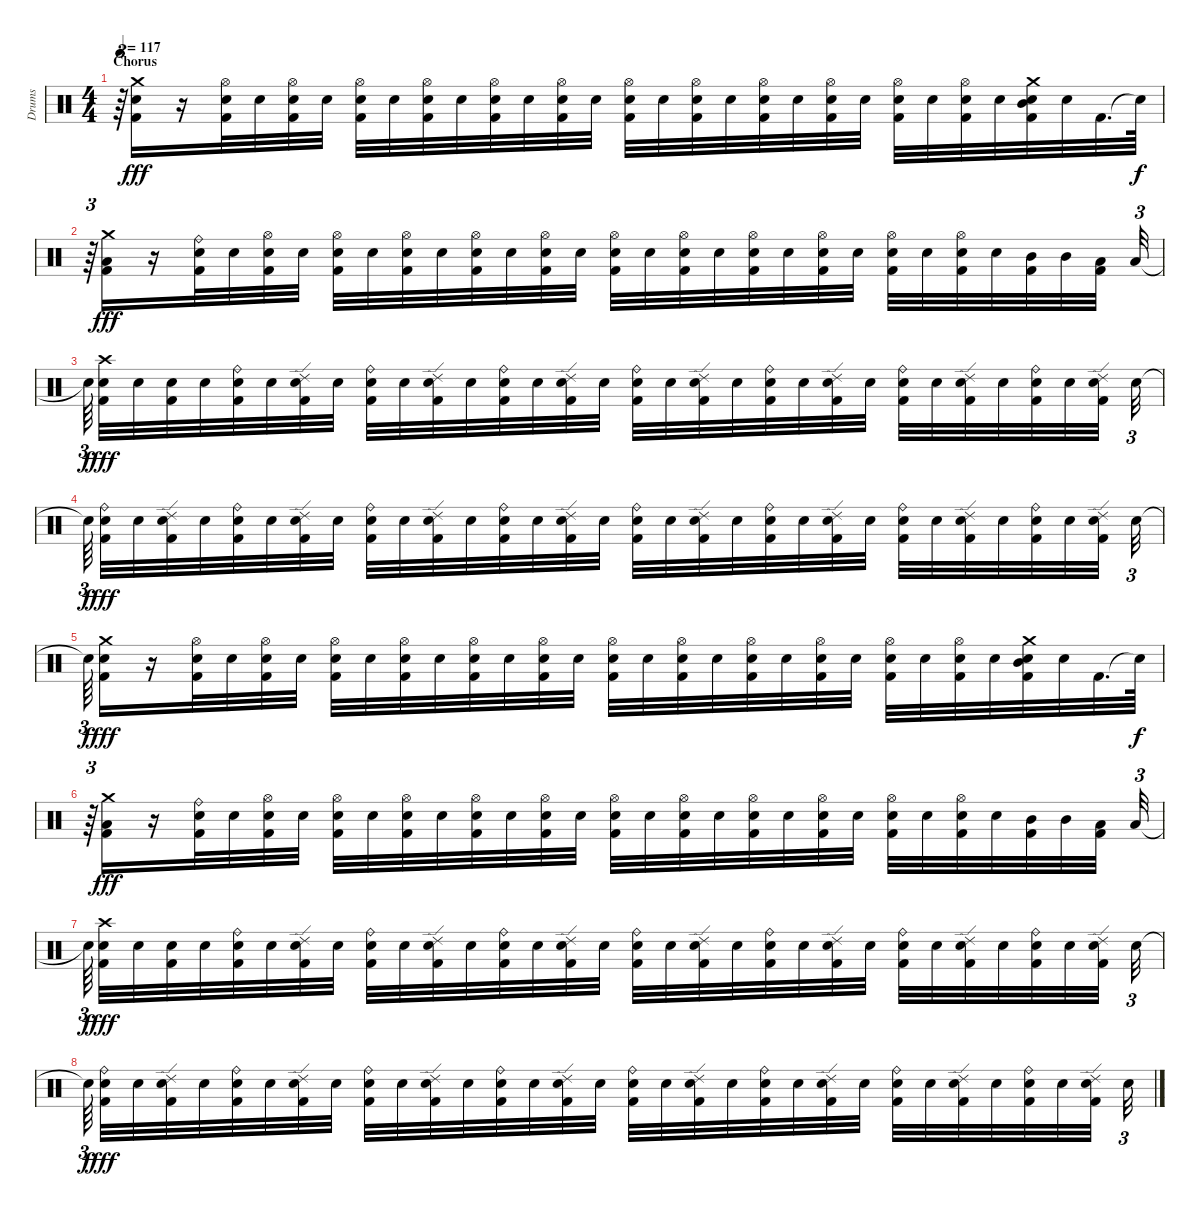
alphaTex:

\track ("Drums" "Drums") {instrument percussion}
\staff {score}
\articulation defaults
\ts (4 4)
\section ("" "Chorus")
\tempo 117
\clef neutral
\ks c
r.64{tu (3 2) dy fff} ("Kick (hit) 2" "Snare (hit) 2" "Crash medium (hit)").16 r.16 ("Kick (hit) 2" "Snare (hit) 2" "Hi-Hat (open)").32 "Snare (hit) 2".32 ("Kick (hit) 2" "Snare (hit) 2" "Hi-Hat (open)").32 "Snare (hit) 2".32 ("Kick (hit) 2" "Snare (hit) 2" "Hi-Hat (open)").32 "Snare (hit) 2".32 ("Kick (hit) 2" "Snare (hit) 2" "Hi-Hat (open)").32 "Snare (hit) 2".32 ("Kick (hit) 2" "Snare (hit) 2" "Hi-Hat (open)").32 "Snare (hit) 2".32 ("Kick (hit) 2" "Snare (hit) 2" "Hi-Hat (open)").32 "Snare (hit) 2".32 ("Kick (hit) 2" "Snare (hit) 2" "Hi-Hat (open)").32 "Snare (hit) 2".32 ("Kick (hit) 2" "Snare (hit) 2" "Hi-Hat (open)").32 "Snare (hit) 2".32 ("Kick (hit) 2" "Snare (hit) 2" "Hi-Hat (open)").32 "Snare (hit) 2".32 ("Kick (hit) 2" "Snare (hit) 2" "Hi-Hat (open)").32 "Snare (hit) 2".32 ("Kick (hit) 2" "Snare (hit) 2" "Hi-Hat (open)").32 "Snare (hit) 2".32 ("Kick (hit) 2" "Snare (hit) 2" "Hi-Hat (open)").32 "Snare (hit) 2".32 ("Kick (hit) 2" "Snare (hit) 2" "Mid Tom (hit)" "Crash medium (hit)").32 "Snare (hit) 2".32 "Kick (hit) 2".32{d} "Snare (hit)"{t}.64{dy f} |
r.64{tu (3 2)} ("Kick (hit) 2" "Low Tom (hit)" "Crash medium (hit)").16{dy fff} r.16 ("Kick (hit) 2" "Snare (hit) 2" "Ride (bell)").32 "Snare (hit) 2".32 ("Kick (hit) 2" "Snare (hit) 2" "Hi-Hat (open)").32 "Snare (hit) 2".32 ("Kick (hit) 2" "Snare (hit) 2" "Hi-Hat (open)").32 "Snare (hit) 2".32 ("Kick (hit) 2" "Snare (hit) 2" "Hi-Hat (open)").32 "Snare (hit) 2".32 ("Kick (hit) 2" "Snare (hit) 2" "Hi-Hat (open)").32 "Snare (hit) 2".32 ("Kick (hit) 2" "Snare (hit) 2" "Hi-Hat (open)").32 "Snare (hit) 2".32 ("Kick (hit) 2" "Snare (hit) 2" "Hi-Hat (open)").32 "Snare (hit) 2".32 ("Kick (hit) 2" "Snare (hit) 2" "Hi-Hat (open)").32 "Snare (hit) 2".32 ("Kick (hit) 2" "Snare (hit) 2" "Hi-Hat (open)").32 "Snare (hit) 2".32 ("Kick (hit) 2" "Snare (hit) 2" "Hi-Hat (open)").32 "Snare (hit) 2".32 ("Kick (hit) 2" "Snare (hit) 2" "Hi-Hat (open)").32 "Snare (hit) 2".32 ("Kick (hit) 2" "Snare (hit) 2" "Hi-Hat (open)").32 "Snare (hit) 2".32 ("Kick (hit) 2" "Mid Tom (hit)").32 "Mid Tom (hit)".32 ("Kick (hit) 2" "Low Tom (hit)").32{beam splitsecondary} "Low Tom (hit)".32{tu (3 2)} |
"Snare (hit)"{t}.64{tu (3 2) dy f beam splitsecondary} ("Kick (hit) 2" "Snare (hit) 2" "Crash high (hit)").32{dy fff} "Snare (hit) 2".32 ("Kick (hit) 2" "Snare (hit) 2").32 "Snare (hit) 2".32 ("Kick (hit) 2" "Snare (hit) 2" "Ride (bell)").32 "Snare (hit) 2".32 ("Kick (hit) 2" "Snare (hit) 2" "Ride (edge) 2").32 "Snare (hit) 2".32 ("Kick (hit) 2" "Snare (hit) 2" "Ride (bell)").32 "Snare (hit) 2".32 ("Kick (hit) 2" "Snare (hit) 2" "Ride (edge) 2").32 "Snare (hit) 2".32 ("Kick (hit) 2" "Snare (hit) 2" "Ride (bell)").32 "Snare (hit) 2".32 ("Kick (hit) 2" "Snare (hit) 2" "Ride (edge) 2").32 "Snare (hit) 2".32 ("Kick (hit) 2" "Snare (hit) 2" "Ride (bell)").32 "Snare (hit) 2".32 ("Kick (hit) 2" "Snare (hit) 2" "Ride (edge) 2").32 "Snare (hit) 2".32 ("Kick (hit) 2" "Snare (hit) 2" "Ride (bell)").32 "Snare (hit) 2".32 ("Kick (hit) 2" "Snare (hit) 2" "Ride (edge) 2").32 "Snare (hit) 2".32 ("Kick (hit) 2" "Snare (hit) 2" "Ride (bell)").32 "Snare (hit) 2".32 ("Kick (hit) 2" "Snare (hit) 2" "Ride (edge) 2").32 "Snare (hit) 2".32 ("Kick (hit) 2" "Snare (hit) 2" "Ride (bell)").32 "Snare (hit) 2".32 ("Kick (hit) 2" "Snare (hit) 2" "Ride (edge) 2").32{beam splitsecondary} "Snare (hit) 2".32{tu (3 2)} |
"Snare (hit)"{t}.64{tu (3 2) dy f beam splitsecondary} ("Kick (hit) 2" "Snare (hit) 2" "Ride (bell)").32{dy fff} "Snare (hit) 2".32 ("Kick (hit) 2" "Snare (hit) 2" "Ride (edge) 2").32 "Snare (hit) 2".32 ("Kick (hit) 2" "Snare (hit) 2" "Ride (bell)").32 "Snare (hit) 2".32 ("Kick (hit) 2" "Snare (hit) 2" "Ride (edge) 2").32 "Snare (hit) 2".32 ("Kick (hit) 2" "Snare (hit) 2" "Ride (bell)").32 "Snare (hit) 2".32 ("Kick (hit) 2" "Snare (hit) 2" "Ride (edge) 2").32 "Snare (hit) 2".32 ("Kick (hit) 2" "Snare (hit) 2" "Ride (bell)").32 "Snare (hit) 2".32 ("Kick (hit) 2" "Snare (hit) 2" "Ride (edge) 2").32 "Snare (hit) 2".32 ("Kick (hit) 2" "Snare (hit) 2" "Ride (bell)").32 "Snare (hit) 2".32 ("Kick (hit) 2" "Snare (hit) 2" "Ride (edge) 2").32 "Snare (hit) 2".32 ("Kick (hit) 2" "Snare (hit) 2" "Ride (bell)").32 "Snare (hit) 2".32 ("Kick (hit) 2" "Snare (hit) 2" "Ride (edge) 2").32 "Snare (hit) 2".32 ("Kick (hit) 2" "Snare (hit) 2" "Ride (bell)").32 "Snare (hit) 2".32 ("Kick (hit) 2" "Snare (hit) 2" "Ride (edge) 2").32 "Snare (hit) 2".32 ("Kick (hit) 2" "Snare (hit) 2" "Ride (bell)").32 "Snare (hit) 2".32 ("Kick (hit) 2" "Snare (hit) 2" "Ride (edge) 2").32{beam splitsecondary} "Snare (hit) 2".32{tu (3 2)} |
"Snare (hit)"{t}.64{tu (3 2) dy f} ("Kick (hit) 2" "Snare (hit) 2" "Crash medium (hit)").16{dy fff} r.16 ("Kick (hit) 2" "Snare (hit) 2" "Hi-Hat (open)").32 "Snare (hit) 2".32 ("Kick (hit) 2" "Snare (hit) 2" "Hi-Hat (open)").32 "Snare (hit) 2".32 ("Kick (hit) 2" "Snare (hit) 2" "Hi-Hat (open)").32 "Snare (hit) 2".32 ("Kick (hit) 2" "Snare (hit) 2" "Hi-Hat (open)").32 "Snare (hit) 2".32 ("Kick (hit) 2" "Snare (hit) 2" "Hi-Hat (open)").32 "Snare (hit) 2".32 ("Kick (hit) 2" "Snare (hit) 2" "Hi-Hat (open)").32 "Snare (hit) 2".32 ("Kick (hit) 2" "Snare (hit) 2" "Hi-Hat (open)").32 "Snare (hit) 2".32 ("Kick (hit) 2" "Snare (hit) 2" "Hi-Hat (open)").32 "Snare (hit) 2".32 ("Kick (hit) 2" "Snare (hit) 2" "Hi-Hat (open)").32 "Snare (hit) 2".32 ("Kick (hit) 2" "Snare (hit) 2" "Hi-Hat (open)").32 "Snare (hit) 2".32 ("Kick (hit) 2" "Snare (hit) 2" "Hi-Hat (open)").32 "Snare (hit) 2".32 ("Kick (hit) 2" "Snare (hit) 2" "Hi-Hat (open)").32 "Snare (hit) 2".32 ("Kick (hit) 2" "Snare (hit) 2" "Mid Tom (hit)" "Crash medium (hit)").32 "Snare (hit) 2".32 "Kick (hit) 2".32{d} "Snare (hit)"{t}.64{dy f} |
r.64{tu (3 2)} ("Kick (hit) 2" "Low Tom (hit)" "Crash medium (hit)").16{dy fff} r.16 ("Kick (hit) 2" "Snare (hit) 2" "Ride (bell)").32 "Snare (hit) 2".32 ("Kick (hit) 2" "Snare (hit) 2" "Hi-Hat (open)").32 "Snare (hit) 2".32 ("Kick (hit) 2" "Snare (hit) 2" "Hi-Hat (open)").32 "Snare (hit) 2".32 ("Kick (hit) 2" "Snare (hit) 2" "Hi-Hat (open)").32 "Snare (hit) 2".32 ("Kick (hit) 2" "Snare (hit) 2" "Hi-Hat (open)").32 "Snare (hit) 2".32 ("Kick (hit) 2" "Snare (hit) 2" "Hi-Hat (open)").32 "Snare (hit) 2".32 ("Kick (hit) 2" "Snare (hit) 2" "Hi-Hat (open)").32 "Snare (hit) 2".32 ("Kick (hit) 2" "Snare (hit) 2" "Hi-Hat (open)").32 "Snare (hit) 2".32 ("Kick (hit) 2" "Snare (hit) 2" "Hi-Hat (open)").32 "Snare (hit) 2".32 ("Kick (hit) 2" "Snare (hit) 2" "Hi-Hat (open)").32 "Snare (hit) 2".32 ("Kick (hit) 2" "Snare (hit) 2" "Hi-Hat (open)").32 "Snare (hit) 2".32 ("Kick (hit) 2" "Snare (hit) 2" "Hi-Hat (open)").32 "Snare (hit) 2".32 ("Kick (hit) 2" "Mid Tom (hit)").32 "Mid Tom (hit)".32 ("Kick (hit) 2" "Low Tom (hit)").32{beam splitsecondary} "Low Tom (hit)".32{tu (3 2)} |
"Snare (hit)"{t}.64{tu (3 2) dy f beam splitsecondary} ("Kick (hit) 2" "Snare (hit) 2" "Crash high (hit)").32{dy fff} "Snare (hit) 2".32 ("Kick (hit) 2" "Snare (hit) 2").32 "Snare (hit) 2".32 ("Kick (hit) 2" "Snare (hit) 2" "Ride (bell)").32 "Snare (hit) 2".32 ("Kick (hit) 2" "Snare (hit) 2" "Ride (edge) 2").32 "Snare (hit) 2".32 ("Kick (hit) 2" "Snare (hit) 2" "Ride (bell)").32 "Snare (hit) 2".32 ("Kick (hit) 2" "Snare (hit) 2" "Ride (edge) 2").32 "Snare (hit) 2".32 ("Kick (hit) 2" "Snare (hit) 2" "Ride (bell)").32 "Snare (hit) 2".32 ("Kick (hit) 2" "Snare (hit) 2" "Ride (edge) 2").32 "Snare (hit) 2".32 ("Kick (hit) 2" "Snare (hit) 2" "Ride (bell)").32 "Snare (hit) 2".32 ("Kick (hit) 2" "Snare (hit) 2" "Ride (edge) 2").32 "Snare (hit) 2".32 ("Kick (hit) 2" "Snare (hit) 2" "Ride (bell)").32 "Snare (hit) 2".32 ("Kick (hit) 2" "Snare (hit) 2" "Ride (edge) 2").32 "Snare (hit) 2".32 ("Kick (hit) 2" "Snare (hit) 2" "Ride (bell)").32 "Snare (hit) 2".32 ("Kick (hit) 2" "Snare (hit) 2" "Ride (edge) 2").32 "Snare (hit) 2".32 ("Kick (hit) 2" "Snare (hit) 2" "Ride (bell)").32 "Snare (hit) 2".32 ("Kick (hit) 2" "Snare (hit) 2" "Ride (edge) 2").32{beam splitsecondary} "Snare (hit) 2".32{tu (3 2)} |
"Snare (hit)"{t}.64{tu (3 2) dy f beam splitsecondary} ("Kick (hit) 2" "Snare (hit) 2" "Ride (bell)").32{dy fff} "Snare (hit) 2".32 ("Kick (hit) 2" "Snare (hit) 2" "Ride (edge) 2").32 "Snare (hit) 2".32 ("Kick (hit) 2" "Snare (hit) 2" "Ride (bell)").32 "Snare (hit) 2".32 ("Kick (hit) 2" "Snare (hit) 2" "Ride (edge) 2").32 "Snare (hit) 2".32 ("Kick (hit) 2" "Snare (hit) 2" "Ride (bell)").32 "Snare (hit) 2".32 ("Kick (hit) 2" "Snare (hit) 2" "Ride (edge) 2").32 "Snare (hit) 2".32 ("Kick (hit) 2" "Snare (hit) 2" "Ride (bell)").32 "Snare (hit) 2".32 ("Kick (hit) 2" "Snare (hit) 2" "Ride (edge) 2").32 "Snare (hit) 2".32 ("Kick (hit) 2" "Snare (hit) 2" "Ride (bell)").32 "Snare (hit) 2".32 ("Kick (hit) 2" "Snare (hit) 2" "Ride (edge) 2").32 "Snare (hit) 2".32 ("Kick (hit) 2" "Snare (hit) 2" "Ride (bell)").32 "Snare (hit) 2".32 ("Kick (hit) 2" "Snare (hit) 2" "Ride (edge) 2").32 "Snare (hit) 2".32 ("Kick (hit) 2" "Snare (hit) 2" "Ride (bell)").32 "Snare (hit) 2".32 ("Kick (hit) 2" "Snare (hit) 2" "Ride (edge) 2").32 "Snare (hit) 2".32 ("Kick (hit) 2" "Snare (hit) 2" "Ride (bell)").32 "Snare (hit) 2".32 ("Kick (hit) 2" "Snare (hit) 2" "Ride (edge) 2").32{beam splitsecondary} "Snare (hit) 2".32{tu (3 2)}
